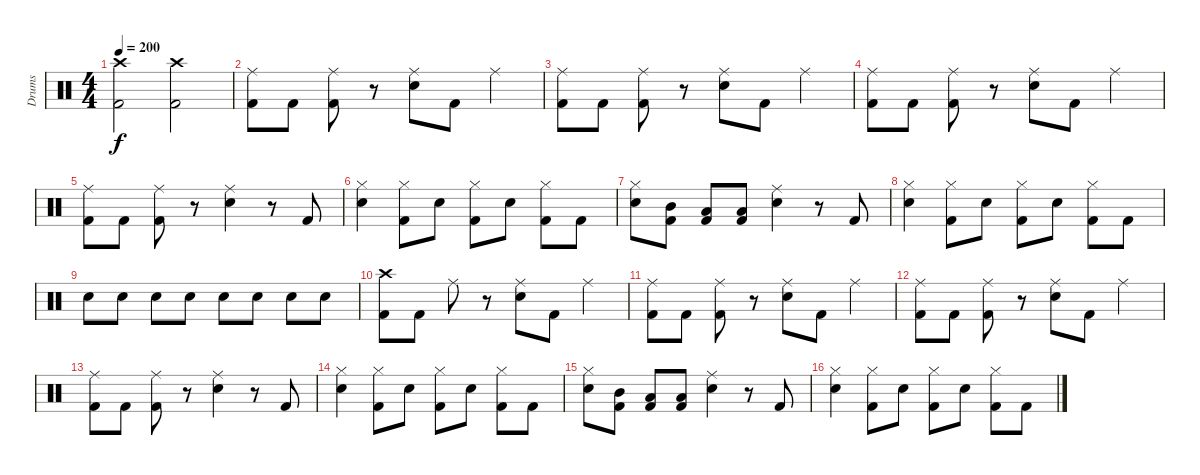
\track ("Drums" "Drums") {instrument percussion}
\staff {score}
\articulation defaults
\ts (4 4)
\tempo 200
\clef neutral
\ks c
("Crash high (hit)" "Kick (hit) 2").2{dy f} ("Crash high (hit)" "Kick (hit) 2").2 |
("Ride (middle)" "Kick (hit) 2").8 "Kick (hit) 2".8 ("Ride (middle)" "Kick (hit) 2").8 r.8 ("Ride (middle)" "Electric Snare (hit)").8 "Kick (hit) 2".8 "Ride (middle)".4 |
("Ride (middle)" "Kick (hit) 2").8 "Kick (hit) 2".8 ("Ride (middle)" "Kick (hit) 2").8 r.8 ("Ride (middle)" "Electric Snare (hit)").8 "Kick (hit) 2".8 "Ride (middle)".4 |
("Ride (middle)" "Kick (hit) 2").8 "Kick (hit) 2".8 ("Ride (middle)" "Kick (hit) 2").8 r.8 ("Ride (middle)" "Electric Snare (hit)").8 "Kick (hit) 2".8 "Ride (middle)".4 |
("Ride (middle)" "Kick (hit) 2").8 "Kick (hit) 2".8 ("Ride (middle)" "Kick (hit) 2").8 r.8 ("Ride (middle)" "Electric Snare (hit)").4 r.8 "Kick (hit) 2".8 |
("Hi-Hat (closed)" "Electric Snare (hit)").4 ("Hi-Hat (closed)" "Kick (hit) 2").8 "Electric Snare (hit)".8 ("Hi-Hat (closed)" "Kick (hit) 2").8 "Electric Snare (hit)".8 ("Hi-Hat (closed)" "Kick (hit) 2").8 "Kick (hit) 2".8 |
("Hi-Hat (closed)" "Electric Snare (hit)").8 ("Mid Tom (hit)" "Kick (hit) 2").8 ("Low Tom (hit)" "Kick (hit) 2").8 ("Low Tom (hit)" "Kick (hit) 2").8 ("Ride (middle)" "Electric Snare (hit)").4 r.8 "Kick (hit) 2".8 |
("Hi-Hat (closed)" "Electric Snare (hit)").4 ("Hi-Hat (closed)" "Kick (hit) 2").8 "Electric Snare (hit)".8 ("Hi-Hat (closed)" "Kick (hit) 2").8 "Electric Snare (hit)".8 ("Hi-Hat (closed)" "Kick (hit) 2").8 "Kick (hit) 2".8 |
"Electric Snare (hit)".8 "Electric Snare (hit)".8 "Electric Snare (hit)".8 "Electric Snare (hit)".8 "Electric Snare (hit)".8 "Electric Snare (hit)".8 "Electric Snare (hit)".8 "Electric Snare (hit)".8 |
("Crash high (hit)" "Kick (hit) 2").8 "Kick (hit) 2".8 "Ride (middle)".8 r.8 ("Ride (middle)" "Electric Snare (hit)").8 "Kick (hit) 2".8 "Ride (middle)".4 |
("Ride (middle)" "Kick (hit) 2").8 "Kick (hit) 2".8 ("Ride (middle)" "Kick (hit) 2").8 r.8 ("Ride (middle)" "Electric Snare (hit)").8 "Kick (hit) 2".8 "Ride (middle)".4 |
("Ride (middle)" "Kick (hit) 2").8 "Kick (hit) 2".8 ("Ride (middle)" "Kick (hit) 2").8 r.8 ("Ride (middle)" "Electric Snare (hit)").8 "Kick (hit) 2".8 "Ride (middle)".4 |
("Ride (middle)" "Kick (hit) 2").8 "Kick (hit) 2".8 ("Ride (middle)" "Kick (hit) 2").8 r.8 ("Ride (middle)" "Electric Snare (hit)").4 r.8 "Kick (hit) 2".8 |
("Hi-Hat (closed)" "Electric Snare (hit)").4 ("Hi-Hat (closed)" "Kick (hit) 2").8 "Electric Snare (hit)".8 ("Hi-Hat (closed)" "Kick (hit) 2").8 "Electric Snare (hit)".8 ("Hi-Hat (closed)" "Kick (hit) 2").8 "Kick (hit) 2".8 |
("Hi-Hat (closed)" "Electric Snare (hit)").8 ("Mid Tom (hit)" "Kick (hit) 2").8 ("Low Tom (hit)" "Kick (hit) 2").8 ("Low Tom (hit)" "Kick (hit) 2").8 ("Ride (middle)" "Electric Snare (hit)").4 r.8 "Kick (hit) 2".8 |
("Hi-Hat (closed)" "Electric Snare (hit)").4 ("Hi-Hat (closed)" "Kick (hit) 2").8 "Electric Snare (hit)".8 ("Hi-Hat (closed)" "Kick (hit) 2").8 "Electric Snare (hit)".8 ("Hi-Hat (closed)" "Kick (hit) 2").8 "Kick (hit) 2".8
